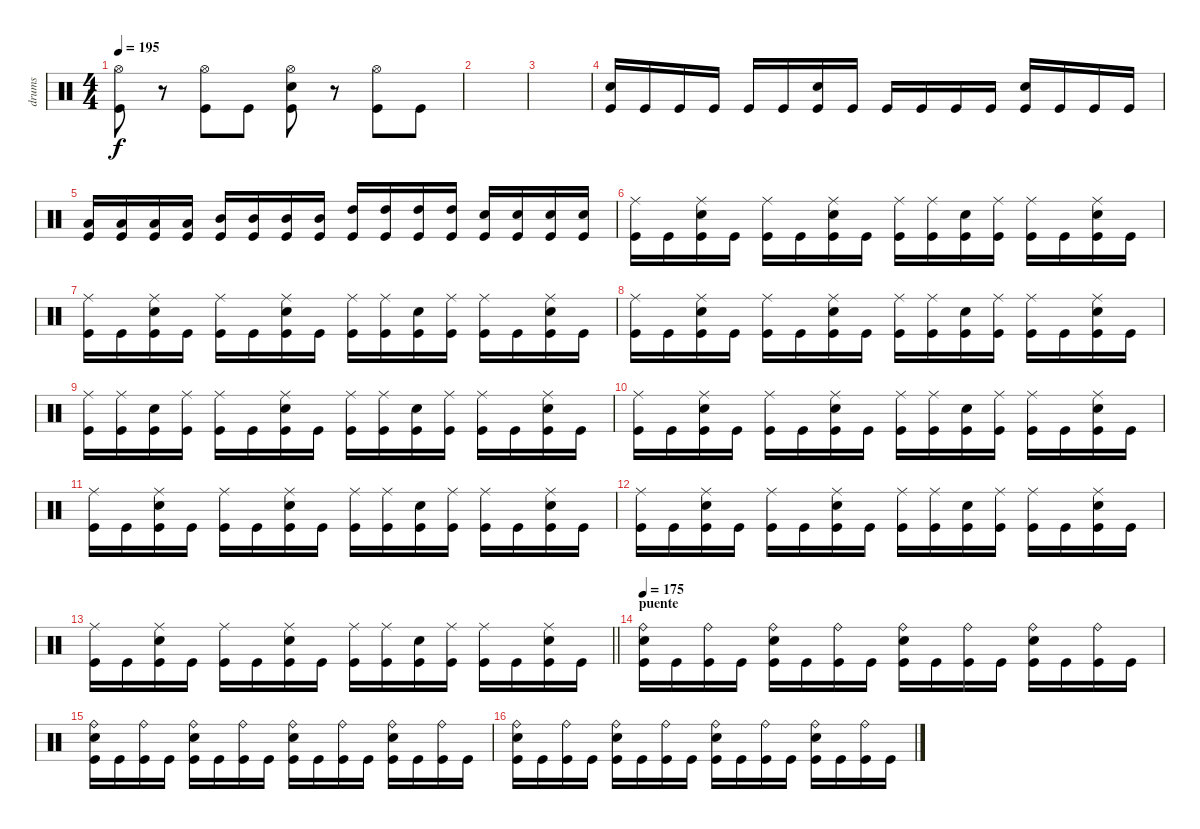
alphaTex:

\track ("drums" "drums") {instrument percussion}
\staff {score}
\articulation defaults
\ts (4 4)
\tempo 195
\clef neutral
\ks c
("Hi-Hat (open)" "Kick (hit)").8{dy f} r.8 ("Hi-Hat (open)" "Kick (hit)").8 "Kick (hit)".8 ("Hi-Hat (open)" "Electric Snare (hit)" "Kick (hit)").8 r.8 ("Hi-Hat (open)" "Kick (hit)").8 "Kick (hit)".8 |
|
|
("Electric Snare (hit)" "Kick (hit)").16 "Kick (hit)".16 "Kick (hit)".16 "Kick (hit)".16 "Kick (hit)".16 "Kick (hit)".16 ("Electric Snare (hit)" "Kick (hit)").16 "Kick (hit)".16 "Kick (hit)".16 "Kick (hit)".16 "Kick (hit)".16 "Kick (hit)".16 ("Electric Snare (hit)" "Kick (hit)").16 "Kick (hit)".16 "Kick (hit)".16 "Kick (hit)".16 |
("Low Tom (hit)" "Kick (hit)").16 ("Low Tom (hit)" "Kick (hit)").16 ("Low Tom (hit)" "Kick (hit)").16 ("Low Tom (hit)" "Kick (hit)").16 ("Mid Tom (hit)" "Kick (hit)").16 ("Mid Tom (hit)" "Kick (hit)").16 ("Mid Tom (hit)" "Kick (hit)").16 ("Mid Tom (hit)" "Kick (hit)").16 ("High Tom (hit)" "Kick (hit)").16 ("High Tom (hit)" "Kick (hit)").16 ("High Tom (hit)" "Kick (hit)").16 ("High Tom (hit)" "Kick (hit)").16 ("Electric Snare (hit)" "Kick (hit)").16 ("Electric Snare (hit)" "Kick (hit)").16 ("Electric Snare (hit)" "Kick (hit)").16 ("Electric Snare (hit)" "Kick (hit)").16 |
("Ride (middle)" "Kick (hit)").16 "Kick (hit)".16 ("Ride (middle)" "Electric Snare (hit)" "Kick (hit)").16 "Kick (hit)".16 ("Ride (middle)" "Kick (hit)").16 "Kick (hit)".16 ("Ride (middle)" "Electric Snare (hit)" "Kick (hit)").16 "Kick (hit)".16 ("Ride (middle)" "Kick (hit)").16 ("Ride (middle)" "Kick (hit)").16 ("Electric Snare (hit)" "Kick (hit)").16 ("Ride (middle)" "Kick (hit)").16 ("Ride (middle)" "Kick (hit)").16 "Kick (hit)".16 ("Ride (middle)" "Electric Snare (hit)" "Kick (hit)").16 "Kick (hit)".16 |
("Ride (middle)" "Kick (hit)").16 "Kick (hit)".16 ("Ride (middle)" "Electric Snare (hit)" "Kick (hit)").16 "Kick (hit)".16 ("Ride (middle)" "Kick (hit)").16 "Kick (hit)".16 ("Ride (middle)" "Electric Snare (hit)" "Kick (hit)").16 "Kick (hit)".16 ("Ride (middle)" "Kick (hit)").16 ("Ride (middle)" "Kick (hit)").16 ("Electric Snare (hit)" "Kick (hit)").16 ("Ride (middle)" "Kick (hit)").16 ("Ride (middle)" "Kick (hit)").16 "Kick (hit)".16 ("Ride (middle)" "Electric Snare (hit)" "Kick (hit)").16 "Kick (hit)".16 |
("Ride (middle)" "Kick (hit)").16 "Kick (hit)".16 ("Ride (middle)" "Electric Snare (hit)" "Kick (hit)").16 "Kick (hit)".16 ("Ride (middle)" "Kick (hit)").16 "Kick (hit)".16 ("Ride (middle)" "Electric Snare (hit)" "Kick (hit)").16 "Kick (hit)".16 ("Ride (middle)" "Kick (hit)").16 ("Ride (middle)" "Kick (hit)").16 ("Electric Snare (hit)" "Kick (hit)").16 ("Ride (middle)" "Kick (hit)").16 ("Ride (middle)" "Kick (hit)").16 "Kick (hit)".16 ("Ride (middle)" "Electric Snare (hit)" "Kick (hit)").16 "Kick (hit)".16 |
("Ride (middle)" "Kick (hit)").16 ("Ride (middle)" "Kick (hit)").16 ("Electric Snare (hit)" "Kick (hit)").16 ("Ride (middle)" "Kick (hit)").16 ("Ride (middle)" "Kick (hit)").16 "Kick (hit)".16 ("Ride (middle)" "Electric Snare (hit)" "Kick (hit)").16 "Kick (hit)".16 ("Ride (middle)" "Kick (hit)").16 ("Ride (middle)" "Kick (hit)").16 ("Electric Snare (hit)" "Kick (hit)").16 ("Ride (middle)" "Kick (hit)").16 ("Ride (middle)" "Kick (hit)").16 "Kick (hit)".16 ("Ride (middle)" "Electric Snare (hit)" "Kick (hit)").16 "Kick (hit)".16 |
("Ride (middle)" "Kick (hit)").16 "Kick (hit)".16 ("Ride (middle)" "Electric Snare (hit)" "Kick (hit)").16 "Kick (hit)".16 ("Ride (middle)" "Kick (hit)").16 "Kick (hit)".16 ("Ride (middle)" "Electric Snare (hit)" "Kick (hit)").16 "Kick (hit)".16 ("Ride (middle)" "Kick (hit)").16 ("Ride (middle)" "Kick (hit)").16 ("Electric Snare (hit)" "Kick (hit)").16 ("Ride (middle)" "Kick (hit)").16 ("Ride (middle)" "Kick (hit)").16 "Kick (hit)".16 ("Ride (middle)" "Electric Snare (hit)" "Kick (hit)").16 "Kick (hit)".16 |
("Ride (middle)" "Kick (hit)").16 "Kick (hit)".16 ("Ride (middle)" "Electric Snare (hit)" "Kick (hit)").16 "Kick (hit)".16 ("Ride (middle)" "Kick (hit)").16 "Kick (hit)".16 ("Ride (middle)" "Electric Snare (hit)" "Kick (hit)").16 "Kick (hit)".16 ("Ride (middle)" "Kick (hit)").16 ("Ride (middle)" "Kick (hit)").16 ("Electric Snare (hit)" "Kick (hit)").16 ("Ride (middle)" "Kick (hit)").16 ("Ride (middle)" "Kick (hit)").16 "Kick (hit)".16 ("Ride (middle)" "Electric Snare (hit)" "Kick (hit)").16 "Kick (hit)".16 |
("Ride (middle)" "Kick (hit)").16 "Kick (hit)".16 ("Ride (middle)" "Electric Snare (hit)" "Kick (hit)").16 "Kick (hit)".16 ("Ride (middle)" "Kick (hit)").16 "Kick (hit)".16 ("Ride (middle)" "Electric Snare (hit)" "Kick (hit)").16 "Kick (hit)".16 ("Ride (middle)" "Kick (hit)").16 ("Ride (middle)" "Kick (hit)").16 ("Electric Snare (hit)" "Kick (hit)").16 ("Ride (middle)" "Kick (hit)").16 ("Ride (middle)" "Kick (hit)").16 "Kick (hit)".16 ("Ride (middle)" "Electric Snare (hit)" "Kick (hit)").16 "Kick (hit)".16 |
\barLineRight lightlight
("Ride (middle)" "Kick (hit)").16 "Kick (hit)".16 ("Ride (middle)" "Electric Snare (hit)" "Kick (hit)").16 "Kick (hit)".16 ("Ride (middle)" "Kick (hit)").16 "Kick (hit)".16 ("Ride (middle)" "Electric Snare (hit)" "Kick (hit)").16 "Kick (hit)".16 ("Ride (middle)" "Kick (hit)").16 ("Ride (middle)" "Kick (hit)").16 ("Electric Snare (hit)" "Kick (hit)").16 ("Ride (middle)" "Kick (hit)").16 ("Ride (middle)" "Kick (hit)").16 "Kick (hit)".16 ("Ride (middle)" "Electric Snare (hit)" "Kick (hit)").16 "Kick (hit)".16 |
\section ("" "puente")
\tempo 175
("Ride (bell)" "Electric Snare (hit)" "Kick (hit)").16 "Kick (hit)".16 ("Ride (bell)" "Kick (hit)").16 "Kick (hit)".16 ("Ride (bell)" "Electric Snare (hit)" "Kick (hit)").16 "Kick (hit)".16 ("Ride (bell)" "Kick (hit)").16 "Kick (hit)".16 ("Ride (bell)" "Electric Snare (hit)" "Kick (hit)").16 "Kick (hit)".16 ("Ride (bell)" "Kick (hit)").16 "Kick (hit)".16 ("Ride (bell)" "Electric Snare (hit)" "Kick (hit)").16 "Kick (hit)".16 ("Ride (bell)" "Kick (hit)").16 "Kick (hit)".16 |
("Ride (bell)" "Electric Snare (hit)" "Kick (hit)").16 "Kick (hit)".16 ("Ride (bell)" "Kick (hit)").16 "Kick (hit)".16 ("Ride (bell)" "Electric Snare (hit)" "Kick (hit)").16 "Kick (hit)".16 ("Ride (bell)" "Kick (hit)").16 "Kick (hit)".16 ("Ride (bell)" "Electric Snare (hit)" "Kick (hit)").16 "Kick (hit)".16 ("Ride (bell)" "Kick (hit)").16 "Kick (hit)".16 ("Ride (bell)" "Electric Snare (hit)" "Kick (hit)").16 "Kick (hit)".16 ("Ride (bell)" "Kick (hit)").16 "Kick (hit)".16 |
("Ride (bell)" "Electric Snare (hit)" "Kick (hit)").16 "Kick (hit)".16 ("Ride (bell)" "Kick (hit)").16 "Kick (hit)".16 ("Ride (bell)" "Electric Snare (hit)" "Kick (hit)").16 "Kick (hit)".16 ("Ride (bell)" "Kick (hit)").16 "Kick (hit)".16 ("Ride (bell)" "Electric Snare (hit)" "Kick (hit)").16 "Kick (hit)".16 ("Ride (bell)" "Kick (hit)").16 "Kick (hit)".16 ("Ride (bell)" "Electric Snare (hit)" "Kick (hit)").16 "Kick (hit)".16 ("Ride (bell)" "Kick (hit)").16 "Kick (hit)".16
